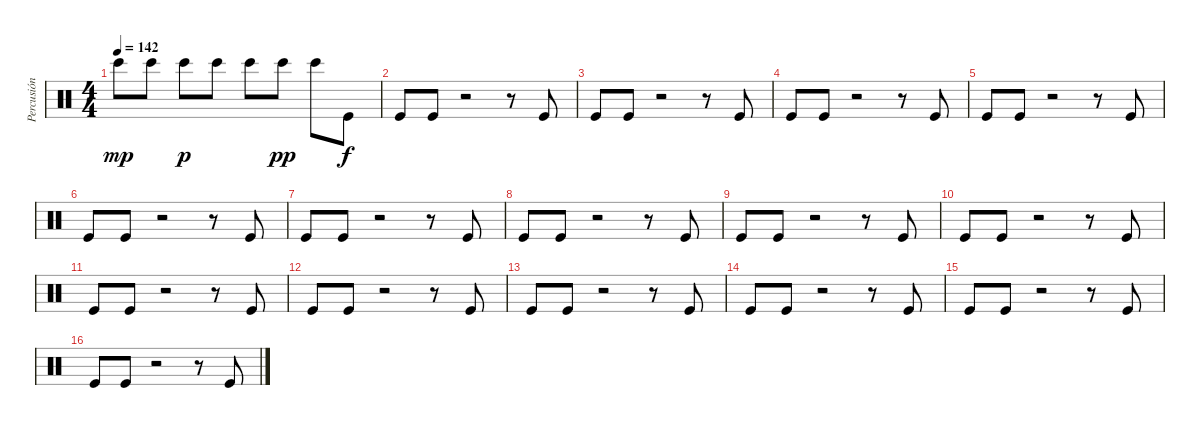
\track ("Percusión" "Percusión") {instrument percussion}
\staff {score}
\articulation defaults
\ts (4 4)
\tempo 142
\clef neutral
\ks c "Bongo High (hit)".8{dy mp balance 0} "Bongo High (hit)".8{balance 16} "Bongo High (hit)".8{dy p balance 0} "Bongo High (hit)".8{balance 16} "Bongo High (hit)".8{balance 0} "Bongo High (hit)".8{dy pp balance 16} "Bongo High (hit)".8{balance 0} "Kick (hit)".8{dy f balance 8}
|
"Kick (hit)".8 "Kick (hit)".8 r.2 r.8 "Kick (hit)".8 |
"Kick (hit)".8 "Kick (hit)".8 r.2 r.8 "Kick (hit)".8 |
"Kick (hit)".8 "Kick (hit)".8 r.2 r.8 "Kick (hit)".8 |
"Kick (hit)".8 "Kick (hit)".8 r.2 r.8 "Kick (hit)".8 |
"Kick (hit)".8 "Kick (hit)".8 r.2 r.8 "Kick (hit)".8 |
"Kick (hit)".8 "Kick (hit)".8 r.2 r.8 "Kick (hit)".8 |
"Kick (hit)".8 "Kick (hit)".8 r.2 r.8 "Kick (hit)".8 |
"Kick (hit)".8 "Kick (hit)".8 r.2 r.8 "Kick (hit)".8 |
"Kick (hit)".8 "Kick (hit)".8 r.2 r.8 "Kick (hit)".8 |
"Kick (hit)".8 "Kick (hit)".8 r.2 r.8 "Kick (hit)".8 |
"Kick (hit)".8 "Kick (hit)".8 r.2 r.8 "Kick (hit)".8 |
"Kick (hit)".8 "Kick (hit)".8 r.2 r.8 "Kick (hit)".8 |
"Kick (hit)".8 "Kick (hit)".8 r.2 r.8 "Kick (hit)".8 |
"Kick (hit)".8 "Kick (hit)".8 r.2 r.8 "Kick (hit)".8 |
"Kick (hit)".8 "Kick (hit)".8 r.2 r.8 "Kick (hit)".8
